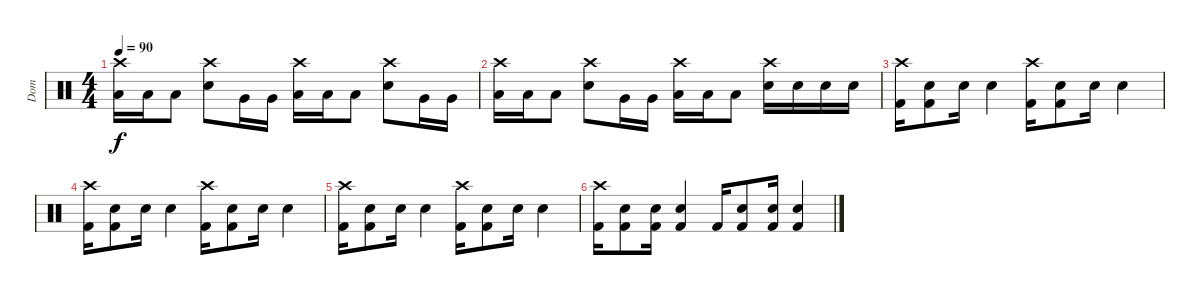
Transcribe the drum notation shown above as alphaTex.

\track ("Dom" "Dom") {instrument percussion}
\staff {score}
\articulation defaults
\ts (4 4)
\tempo 90
\clef neutral
\ks c
("Crash high (hit)" "Low Tom (hit)").16{dy f} "Low Tom (hit)".16 "Low Tom (hit)".8 ("Crash high (hit)" "Electric Snare (hit)").8 "Very Low Tom (hit)".16 "Very Low Tom (hit)".16 ("Crash high (hit)" "Low Tom (hit)").16 "Low Tom (hit)".16 "Low Tom (hit)".8 ("Crash high (hit)" "Electric Snare (hit)").8 "Very Low Tom (hit)".16 "Very Low Tom (hit)".16 |
("Crash high (hit)" "Low Tom (hit)").16 "Low Tom (hit)".16 "Low Tom (hit)".8 ("Crash high (hit)" "Electric Snare (hit)").8 "Very Low Tom (hit)".16 "Very Low Tom (hit)".16 ("Crash high (hit)" "Low Tom (hit)").16 "Low Tom (hit)".16 "Low Tom (hit)".8 ("Crash high (hit)" "Electric Snare (hit)").16 "Electric Snare (hit)".16 "Electric Snare (hit)".16 "Electric Snare (hit)".16 |
("Crash high (hit)" "Kick (hit) 2").16 ("Snare (hit) 2" "Kick (hit) 2").8 "Electric Snare (hit)".16 "Electric Snare (hit)".4 ("Crash high (hit)" "Kick (hit) 2").16 ("Snare (hit) 2" "Kick (hit) 2").8 "Electric Snare (hit)".16 "Electric Snare (hit)".4 |
("Crash high (hit)" "Kick (hit) 2").16 ("Snare (hit) 2" "Kick (hit) 2").8 "Electric Snare (hit)".16 "Electric Snare (hit)".4 ("Crash high (hit)" "Kick (hit) 2").16 ("Snare (hit) 2" "Kick (hit) 2").8 "Electric Snare (hit)".16 "Electric Snare (hit)".4 |
("Crash high (hit)" "Kick (hit) 2").16 ("Snare (hit) 2" "Kick (hit) 2").8 "Electric Snare (hit)".16 "Electric Snare (hit)".4 ("Crash high (hit)" "Kick (hit) 2").16 ("Snare (hit) 2" "Kick (hit) 2").8 "Electric Snare (hit)".16 "Electric Snare (hit)".4 |
("Crash high (hit)" "Kick (hit) 2").16 ("Snare (hit) 2" "Kick (hit) 2").8 ("Electric Snare (hit)" "Kick (hit) 2").16 ("Electric Snare (hit)" "Kick (hit) 2").4 "Kick (hit) 2".16 ("Snare (hit) 2" "Kick (hit) 2").8 ("Electric Snare (hit)" "Kick (hit) 2").16 ("Electric Snare (hit)" "Kick (hit) 2").4
